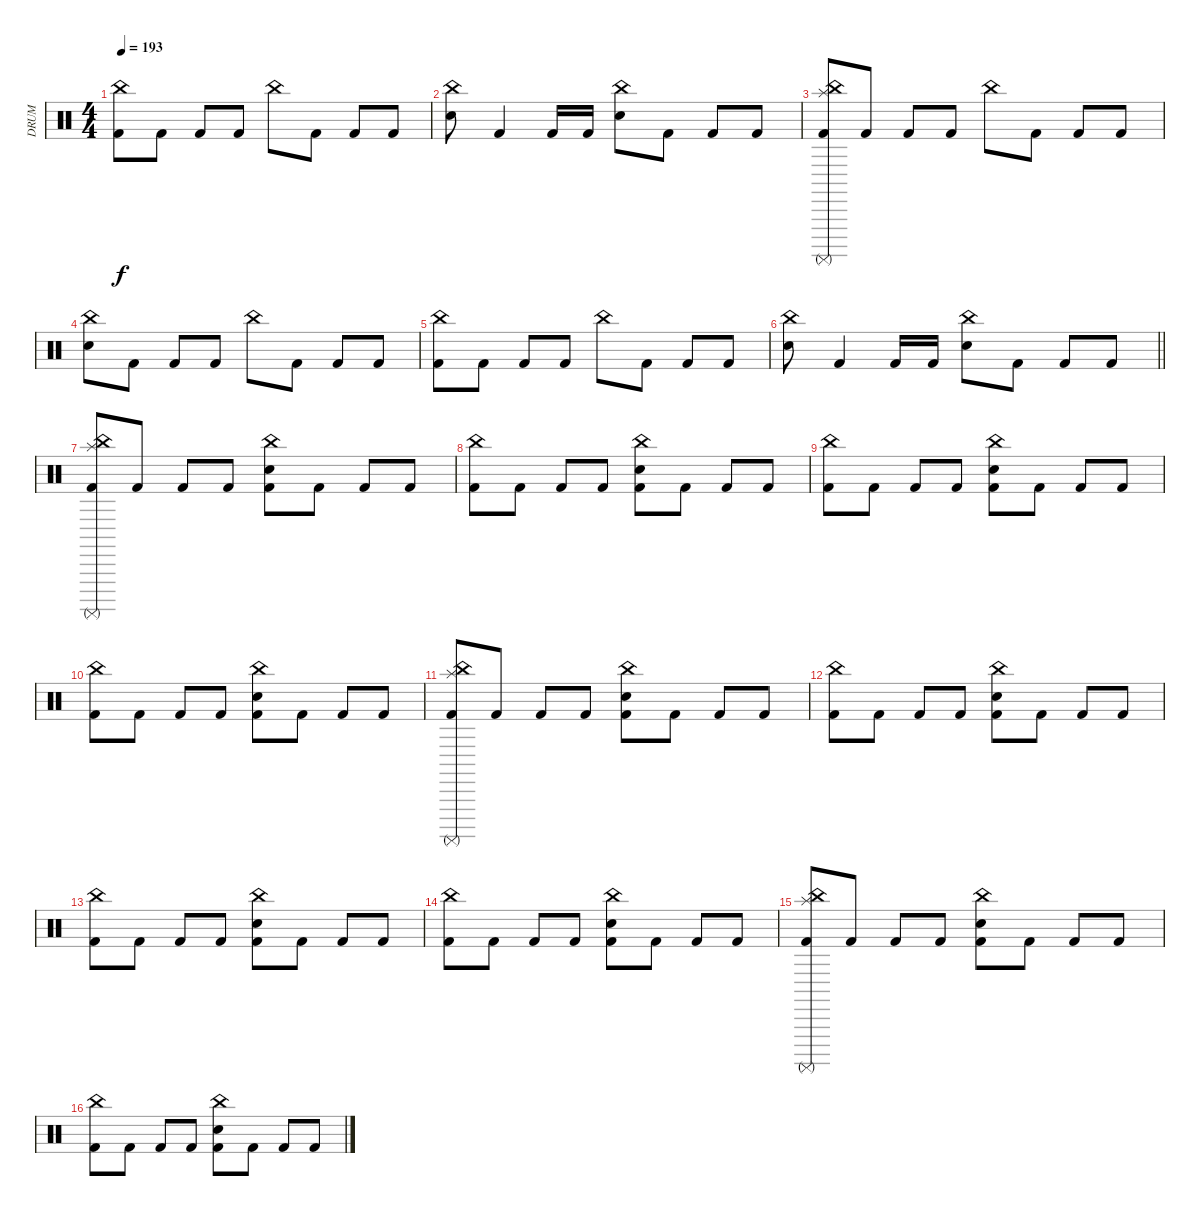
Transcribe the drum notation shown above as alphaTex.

\track ("DRUM" "DRUM") {instrument percussion bank 102}
\staff {score}
\articulation defaults
\ts (4 4)
\tempo 193
\clef neutral
\ks c
("China (hit)" "Kick (hit) 2").8{dy f} "Kick (hit) 2".8 "Kick (hit) 2".8 "Kick (hit) 2".8 "China (hit)".8 "Kick (hit) 2".8 "Kick (hit) 2".8 "Kick (hit) 2".8 |
("China (hit)" "Electric Snare (hit)").8 "Kick (hit) 2".4 "Kick (hit) 2".16 "Kick (hit) 2".16 ("China (hit)" "Electric Snare (hit)").8 "Kick (hit) 2".8 "Kick (hit) 2".8 "Kick (hit) 2".8 |
("China (hit)" "Splash (hit)" "Surdo (mute)" "Kick (hit) 2").8 "Kick (hit) 2".8 "Kick (hit) 2".8 "Kick (hit) 2".8 "China (hit)".8 "Kick (hit) 2".8 "Kick (hit) 2".8 "Kick (hit) 2".8 |
("China (hit)" "Electric Snare (hit)").8 "Kick (hit) 2".8 "Kick (hit) 2".8 "Kick (hit) 2".8 "China (hit)".8 "Kick (hit) 2".8 "Kick (hit) 2".8 "Kick (hit) 2".8 |
("China (hit)" "Kick (hit) 2").8 "Kick (hit) 2".8 "Kick (hit) 2".8 "Kick (hit) 2".8 "China (hit)".8 "Kick (hit) 2".8 "Kick (hit) 2".8 "Kick (hit) 2".8 |
\barLineRight lightlight
("China (hit)" "Electric Snare (hit)").8 "Kick (hit) 2".4 "Kick (hit) 2".16 "Kick (hit) 2".16 ("China (hit)" "Electric Snare (hit)").8 "Kick (hit) 2".8 "Kick (hit) 2".8 "Kick (hit) 2".8 |
("China (hit)" "Splash (hit)" "Surdo (mute)" "Kick (hit) 2").8 "Kick (hit) 2".8 "Kick (hit) 2".8 "Kick (hit) 2".8 ("China (hit)" "Electric Snare (hit)" "Kick (hit) 2").8 "Kick (hit) 2".8 "Kick (hit) 2".8 "Kick (hit) 2".8 |
("China (hit)" "Kick (hit) 2").8 "Kick (hit) 2".8 "Kick (hit) 2".8 "Kick (hit) 2".8 ("China (hit)" "Electric Snare (hit)" "Kick (hit) 2").8 "Kick (hit) 2".8 "Kick (hit) 2".8 "Kick (hit) 2".8 |
("China (hit)" "Kick (hit) 2").8 "Kick (hit) 2".8 "Kick (hit) 2".8 "Kick (hit) 2".8 ("China (hit)" "Electric Snare (hit)" "Kick (hit) 2").8 "Kick (hit) 2".8 "Kick (hit) 2".8 "Kick (hit) 2".8 |
("China (hit)" "Kick (hit) 2").8 "Kick (hit) 2".8 "Kick (hit) 2".8 "Kick (hit) 2".8 ("China (hit)" "Electric Snare (hit)" "Kick (hit) 2").8 "Kick (hit) 2".8 "Kick (hit) 2".8 "Kick (hit) 2".8 |
("China (hit)" "Splash (hit)" "Surdo (mute)" "Kick (hit) 2").8 "Kick (hit) 2".8 "Kick (hit) 2".8 "Kick (hit) 2".8 ("China (hit)" "Electric Snare (hit)" "Kick (hit) 2").8 "Kick (hit) 2".8 "Kick (hit) 2".8 "Kick (hit) 2".8 |
("China (hit)" "Kick (hit) 2").8 "Kick (hit) 2".8 "Kick (hit) 2".8 "Kick (hit) 2".8 ("China (hit)" "Electric Snare (hit)" "Kick (hit) 2").8 "Kick (hit) 2".8 "Kick (hit) 2".8 "Kick (hit) 2".8 |
("China (hit)" "Kick (hit) 2").8 "Kick (hit) 2".8 "Kick (hit) 2".8 "Kick (hit) 2".8 ("China (hit)" "Electric Snare (hit)" "Kick (hit) 2").8 "Kick (hit) 2".8 "Kick (hit) 2".8 "Kick (hit) 2".8 |
("China (hit)" "Kick (hit) 2").8 "Kick (hit) 2".8 "Kick (hit) 2".8 "Kick (hit) 2".8 ("China (hit)" "Electric Snare (hit)" "Kick (hit) 2").8 "Kick (hit) 2".8 "Kick (hit) 2".8 "Kick (hit) 2".8 |
("China (hit)" "Splash (hit)" "Surdo (mute)" "Kick (hit) 2").8 "Kick (hit) 2".8 "Kick (hit) 2".8 "Kick (hit) 2".8 ("China (hit)" "Electric Snare (hit)" "Kick (hit) 2").8 "Kick (hit) 2".8 "Kick (hit) 2".8 "Kick (hit) 2".8 |
("China (hit)" "Kick (hit) 2").8 "Kick (hit) 2".8 "Kick (hit) 2".8 "Kick (hit) 2".8 ("China (hit)" "Electric Snare (hit)" "Kick (hit) 2").8 "Kick (hit) 2".8 "Kick (hit) 2".8 "Kick (hit) 2".8
